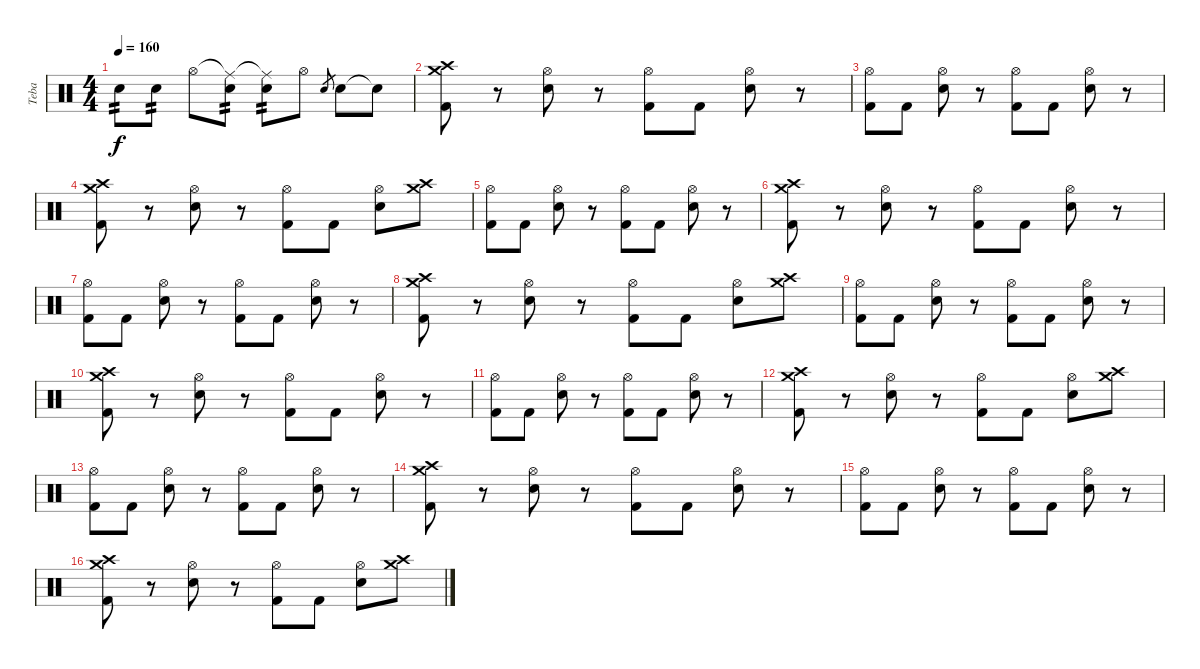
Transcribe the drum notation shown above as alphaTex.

\track ("Teba" "Teba") {instrument percussion}
\staff {score}
\articulation defaults
\ts (4 4)
\tempo 160
\clef neutral
\ks c "Electric Snare (hit)".8{tp 2 dy f} "Electric Snare (hit)".8{tp 2} "Hi-Hat (open)".8
("Ride (middle)"{t} "Electric Snare (hit)").8{tp 2} ("Ride (middle)"{t} "Electric Snare (hit)").8{tp 2} "Hi-Hat (open)".8 "Electric Snare (hit)"{h}.8{gr} "Electric Snare (hit)".8 "Snare (hit)"{t}.8 |
("Crash medium (hit)" "Crash high (hit)" "Kick (hit) 2").8 r.8 ("Hi-Hat (open)" "Electric Snare (hit)").8 r.8 ("Hi-Hat (open)" "Kick (hit) 2").8 "Kick (hit) 2".8 ("Hi-Hat (open)" "Electric Snare (hit)").8 r.8 |
("Hi-Hat (open)" "Kick (hit) 2").8 "Kick (hit) 2".8 ("Hi-Hat (open)" "Electric Snare (hit)").8 r.8 ("Hi-Hat (open)" "Kick (hit) 2").8 "Kick (hit) 2".8 ("Hi-Hat (open)" "Electric Snare (hit)").8 r.8 |
("Crash medium (hit)" "Crash high (hit)" "Kick (hit) 2").8 r.8 ("Hi-Hat (open)" "Electric Snare (hit)").8 r.8 ("Hi-Hat (open)" "Kick (hit) 2").8 "Kick (hit) 2".8 ("Hi-Hat (open)" "Electric Snare (hit)").8 ("Crash medium (hit)" "Crash high (hit)").8 |
("Hi-Hat (open)" "Kick (hit) 2").8 "Kick (hit) 2".8 ("Hi-Hat (open)" "Electric Snare (hit)").8 r.8 ("Hi-Hat (open)" "Kick (hit) 2").8 "Kick (hit) 2".8 ("Hi-Hat (open)" "Electric Snare (hit)").8 r.8 |
("Crash medium (hit)" "Crash high (hit)" "Kick (hit) 2").8 r.8 ("Hi-Hat (open)" "Electric Snare (hit)").8 r.8 ("Hi-Hat (open)" "Kick (hit) 2").8 "Kick (hit) 2".8 ("Hi-Hat (open)" "Electric Snare (hit)").8 r.8 |
("Hi-Hat (open)" "Kick (hit) 2").8 "Kick (hit) 2".8 ("Hi-Hat (open)" "Electric Snare (hit)").8 r.8 ("Hi-Hat (open)" "Kick (hit) 2").8 "Kick (hit) 2".8 ("Hi-Hat (open)" "Electric Snare (hit)").8 r.8 |
("Crash medium (hit)" "Crash high (hit)" "Kick (hit) 2").8 r.8 ("Hi-Hat (open)" "Electric Snare (hit)").8 r.8 ("Hi-Hat (open)" "Kick (hit) 2").8 "Kick (hit) 2".8 ("Hi-Hat (open)" "Electric Snare (hit)").8 ("Crash medium (hit)" "Crash high (hit)").8 |
("Hi-Hat (open)" "Kick (hit) 2").8 "Kick (hit) 2".8 ("Hi-Hat (open)" "Electric Snare (hit)").8 r.8 ("Hi-Hat (open)" "Kick (hit) 2").8 "Kick (hit) 2".8 ("Hi-Hat (open)" "Electric Snare (hit)").8 r.8 |
("Crash medium (hit)" "Crash high (hit)" "Kick (hit) 2").8 r.8 ("Hi-Hat (open)" "Electric Snare (hit)").8 r.8 ("Hi-Hat (open)" "Kick (hit) 2").8 "Kick (hit) 2".8 ("Hi-Hat (open)" "Electric Snare (hit)").8 r.8 |
("Hi-Hat (open)" "Kick (hit) 2").8 "Kick (hit) 2".8 ("Hi-Hat (open)" "Electric Snare (hit)").8 r.8 ("Hi-Hat (open)" "Kick (hit) 2").8 "Kick (hit) 2".8 ("Hi-Hat (open)" "Electric Snare (hit)").8 r.8 |
("Crash medium (hit)" "Crash high (hit)" "Kick (hit) 2").8 r.8 ("Hi-Hat (open)" "Electric Snare (hit)").8 r.8 ("Hi-Hat (open)" "Kick (hit) 2").8 "Kick (hit) 2".8 ("Hi-Hat (open)" "Electric Snare (hit)").8 ("Crash medium (hit)" "Crash high (hit)").8 |
("Hi-Hat (open)" "Kick (hit) 2").8 "Kick (hit) 2".8 ("Hi-Hat (open)" "Electric Snare (hit)").8 r.8 ("Hi-Hat (open)" "Kick (hit) 2").8 "Kick (hit) 2".8 ("Hi-Hat (open)" "Electric Snare (hit)").8 r.8 |
("Crash medium (hit)" "Crash high (hit)" "Kick (hit) 2").8 r.8 ("Hi-Hat (open)" "Electric Snare (hit)").8 r.8 ("Hi-Hat (open)" "Kick (hit) 2").8 "Kick (hit) 2".8 ("Hi-Hat (open)" "Electric Snare (hit)").8 r.8 |
("Hi-Hat (open)" "Kick (hit) 2").8 "Kick (hit) 2".8 ("Hi-Hat (open)" "Electric Snare (hit)").8 r.8 ("Hi-Hat (open)" "Kick (hit) 2").8 "Kick (hit) 2".8 ("Hi-Hat (open)" "Electric Snare (hit)").8 r.8 |
("Crash medium (hit)" "Crash high (hit)" "Kick (hit) 2").8 r.8 ("Hi-Hat (open)" "Electric Snare (hit)").8 r.8 ("Hi-Hat (open)" "Kick (hit) 2").8 "Kick (hit) 2".8 ("Hi-Hat (open)" "Electric Snare (hit)").8 ("Crash medium (hit)" "Crash high (hit)").8
